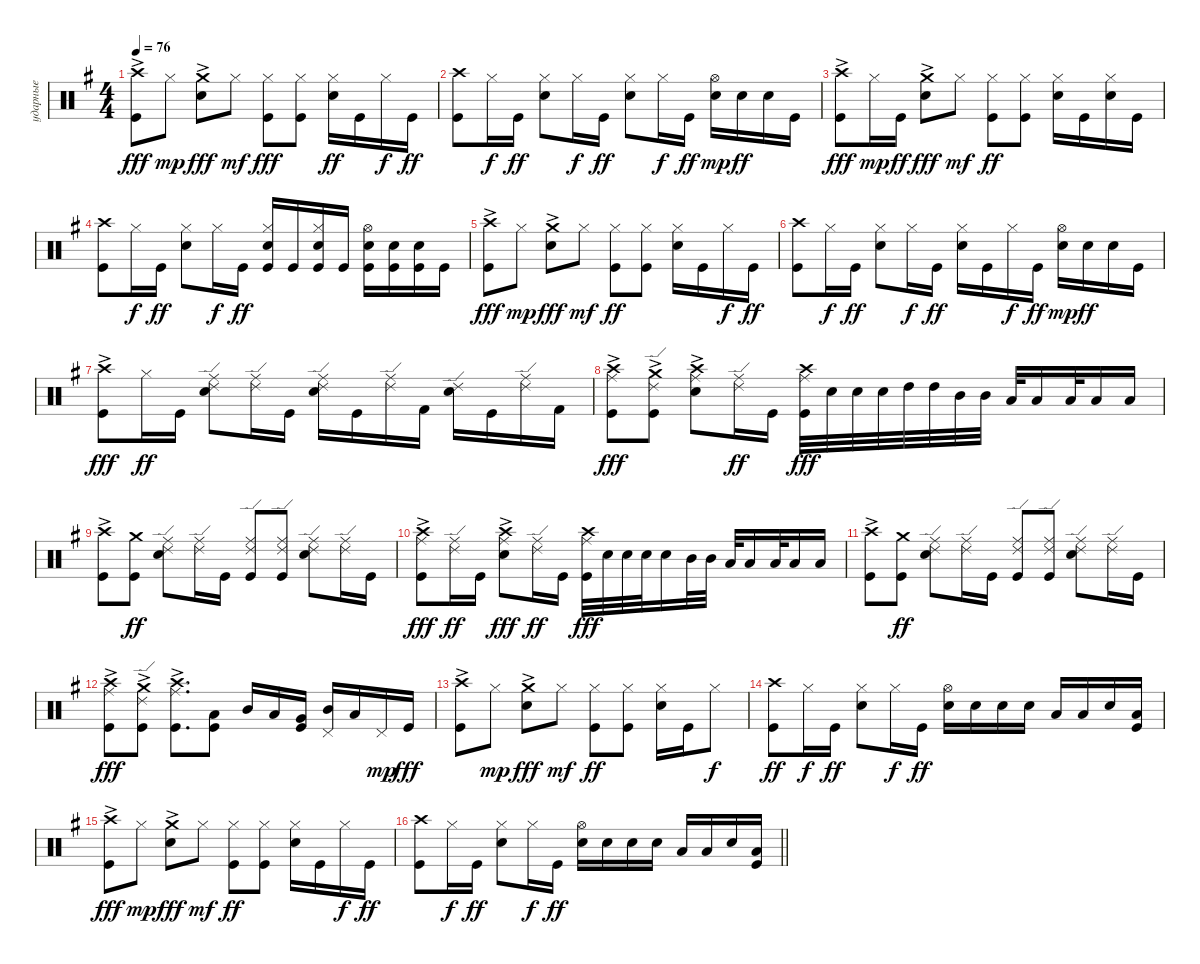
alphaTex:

\track ("ударные" "ударные") {instrument percussion}
\staff {score}
\articulation defaults
\ts (4 4)
\tempo 76
\clef neutral
\ks eminor
("Kick (hit)" "Crash high (hit)"{ac}).8{dy fff} "Hi-Hat (closed)".8{dy mp} ("Snare (hit) 2" "Crash medium (hit)"{ac}).8{dy fff} "Hi-Hat (closed)".8{dy mf} ("Kick (hit)" "Hi-Hat (closed)").8{dy fff} ("Kick (hit)" "Hi-Hat (closed)").8 ("Snare (hit) 2" "Hi-Hat (closed)").16{dy ff} "Kick (hit)".16 "Hi-Hat (closed)".16{dy f} "Kick (hit)".16{dy ff} |
("Kick (hit)" "Crash high (hit)").8 "Hi-Hat (closed)".16{dy f} "Kick (hit)".16{dy ff} ("Snare (hit) 2" "Hi-Hat (closed)").8 "Hi-Hat (closed)".16{dy f} "Kick (hit)".16{dy ff} ("Snare (hit) 2" "Hi-Hat (closed)").8 "Hi-Hat (closed)".16{dy f} "Kick (hit)".16{dy ff} ("Snare (hit) 2" "Hi-Hat (open)").16{dy mp} "Snare (hit) 2".16{dy ff} "Snare (hit) 2".16 "Kick (hit)".16 |
("Kick (hit)" "Crash high (hit)"{ac}).8{dy fff} "Hi-Hat (closed)".16{dy mp} "Kick (hit)".16{dy ff} ("Snare (hit) 2" "Crash medium (hit)"{ac}).8{dy fff} "Hi-Hat (closed)".8{dy mf} ("Kick (hit)" "Hi-Hat (closed)").8{dy ff} ("Kick (hit)" "Hi-Hat (closed)").8 ("Snare (hit) 2" "Hi-Hat (closed)").16 "Kick (hit)".16 ("Hi-Hat (closed)" "Snare (hit) 2").16 "Kick (hit)".16 |
("Kick (hit)" "Crash high (hit)").8 "Hi-Hat (closed)".16{dy f} "Kick (hit)".16{dy ff} ("Snare (hit) 2" "Hi-Hat (closed)").8 "Hi-Hat (closed)".16{dy f} "Kick (hit)".16{dy ff} ("Snare (hit) 2" "Hi-Hat (closed)" "Kick (hit)").16 "Kick (hit)".16 ("Hi-Hat (closed)" "Kick (hit)" "Snare (hit) 2").16 "Kick (hit)".16 ("Snare (hit) 2" "Hi-Hat (open)" "Kick (hit)").16 ("Snare (hit) 2" "Kick (hit)").16 ("Kick (hit)" "Snare (hit) 2").16 "Kick (hit)".16 |
("Kick (hit)" "Crash high (hit)"{ac}).8{dy fff} "Hi-Hat (closed)".8{dy mp} ("Snare (hit) 2" "Crash medium (hit)"{ac}).8{dy fff} "Hi-Hat (closed)".8{dy mf} ("Kick (hit)" "Hi-Hat (closed)").8{dy ff} ("Kick (hit)" "Hi-Hat (closed)").8 ("Snare (hit) 2" "Hi-Hat (closed)").16 "Kick (hit)".16 "Hi-Hat (closed)".16{dy f} "Kick (hit)".16{dy ff} |
("Kick (hit)" "Crash high (hit)").8 "Hi-Hat (closed)".16{dy f} "Kick (hit)".16{dy ff} ("Snare (hit) 2" "Hi-Hat (closed)").8 "Hi-Hat (closed)".16{dy f} "Kick (hit)".16{dy ff} ("Snare (hit) 2" "Hi-Hat (closed)").16 "Kick (hit)".16 "Hi-Hat (closed)".16{dy f} "Kick (hit)".16{dy ff} ("Snare (hit) 2" "Hi-Hat (open)").16{dy mp} "Snare (hit) 2".16{dy ff} "Snare (hit) 2".16 "Kick (hit)".16 |
("Kick (hit)" "Crash high (hit)"{ac}).8{dy fff} "Hi-Hat (closed)".16{dy ff} "Kick (hit)".16 ("Snare (hit) 2" "Ride (middle)" "Ride (edge) 2").8 ("Ride (middle)" "Ride (edge) 2").16 "Kick (hit)".16 ("Snare (hit) 2" "Ride (middle)" "Ride (edge) 2").16 "Kick (hit)".16 ("Ride (middle)" "Ride (edge) 2").16 "Kick (hit) 2".16 ("Ride (edge) 2" "Snare (hit) 2").16 "Kick (hit)".16 ("Ride (middle)" "Ride (edge) 2").16 "Kick (hit) 2".16 |
("Kick (hit)"{ac} "Ride (middle)"{ac} "Crash high (hit)"{ac}).8{dy fff} ("Kick (hit)"{ac} "Crash medium (hit)"{ac} "Ride (edge) 2"{ac}).8 ("Snare (hit) 2"{ac} "Crash high (hit)"{ac} "Ride (middle)"{ac}).8 ("Ride (middle)" "Ride (edge) 2").16{dy ff} "Kick (hit)".16 ("Kick (hit)" "Crash high (hit)" "Ride (middle)").32{dy fff} "Snare (hit) 2".32 "Snare (hit) 2".32 "Snare (hit) 2".32 "High Tom (hit)".32 "High Tom (hit)".32 "Mid Tom (hit)".32 "Mid Tom (hit)".32 "Low Tom (hit)".32 "Low Tom (hit)".16 "Low Tom (hit)".32 "Low Tom (hit)".16 "Low Floor Tom (hit)".16 |
("Kick (hit)" "Crash high (hit)"{ac}).8 ("Kick (hit)" "Crash medium (hit)").8{dy ff} ("Snare (hit) 2" "Ride (middle)" "Ride (edge) 2").8 ("Ride (middle)" "Ride (edge) 2").16 "Kick (hit)".16 ("Kick (hit)" "Ride (middle)" "Ride (edge) 2").8 ("Kick (hit)" "Ride (middle)" "Ride (edge) 2").8 ("Snare (hit) 2" "Ride (middle)" "Ride (edge) 2").8 ("Ride (middle)" "Ride (edge) 2").16 "Kick (hit)".16 |
("Kick (hit)"{ac} "Ride (middle)"{ac} "Crash high (hit)"{ac}).8{dy fff} ("Ride (middle)" "Ride (edge) 2").16{dy ff} "Kick (hit)".16 ("Snare (hit) 2"{ac} "Crash high (hit)"{ac} "Ride (middle)"{ac}).8{dy fff} ("Ride (middle)" "Ride (edge) 2").16{dy ff} "Kick (hit)".16 ("Kick (hit)" "Crash high (hit)" "Ride (middle)").32{dy fff} "Snare (hit) 2".32 "Snare (hit) 2".32 "Snare (hit) 2".32 "Snare (hit) 2".16 "Mid Tom (hit)".32 "Mid Tom (hit)".32 "Low Tom (hit)".32 "Low Tom (hit)".16 "Low Tom (hit)".32 "Low Tom (hit)".16 "Low Floor Tom (hit)".16 |
("Kick (hit)" "Crash high (hit)"{ac}).8 ("Kick (hit)" "Crash medium (hit)").8{dy ff} ("Snare (hit) 2" "Ride (middle)" "Ride (edge) 2").8 ("Ride (middle)" "Ride (edge) 2").16 "Kick (hit)".16 ("Kick (hit)" "Ride (middle)" "Ride (edge) 2").8 ("Kick (hit)" "Ride (middle)" "Ride (edge) 2").8 ("Snare (hit) 2" "Ride (middle)" "Ride (edge) 2").8 ("Ride (middle)" "Ride (edge) 2").16 "Kick (hit)".16 |
("Kick (hit)"{ac} "Ride (middle)"{ac} "Crash high (hit)"{ac}).8{dy fff} ("Kick (hit)"{ac} "Crash medium (hit)"{ac} "Ride (edge) 2"{ac}).8 ("Kick (hit)"{ac} "Crash high (hit)"{ac} "Ride (middle)"{ac}).8{d} ("Kick (hit)" "Low Tom (hit)").8 "Mid Tom (hit)".16 "Low Tom (hit)".16 ("Kick (hit)" "Very Low Tom (hit)").16 ("Pedal Hi-Hat (hit)" "Mid Tom (hit)").16 "Low Floor Tom (hit)".16 "Pedal Hi-Hat (hit)".16{dy mp} "Kick (hit)".16{dy fff} |
("Kick (hit)" "Crash high (hit)"{ac}).8 "Hi-Hat (closed)".8{dy mp} ("Snare (hit) 2" "Crash medium (hit)"{ac}).8{dy fff} "Hi-Hat (closed)".8{dy mf} ("Kick (hit)" "Hi-Hat (closed)").8{dy ff} ("Kick (hit)" "Hi-Hat (closed)").8 ("Snare (hit) 2" "Hi-Hat (closed)").16 "Kick (hit)".16 "Hi-Hat (closed)".8{dy f} |
("Kick (hit)" "Crash high (hit)").8{dy ff} "Hi-Hat (closed)".16{dy f} "Kick (hit)".16{dy ff} ("Snare (hit) 2" "Hi-Hat (closed)").8 "Hi-Hat (closed)".16{dy f} "Kick (hit)".16{dy ff} ("Hi-Hat (open)" "Snare (hit) 2").16 "Snare (hit) 2".16 "Snare (hit) 2".16 "Snare (hit) 2".16 "Low Tom (hit)".16 "Low Tom (hit)".16 "Snare (hit) 2".16 ("Kick (hit)" "Low Tom (hit)").16 |
("Kick (hit)" "Crash high (hit)"{ac}).8{dy fff} "Hi-Hat (closed)".8{dy mp} ("Snare (hit) 2" "Crash medium (hit)"{ac}).8{dy fff} "Hi-Hat (closed)".8{dy mf} ("Kick (hit)" "Hi-Hat (closed)").8{dy ff} ("Kick (hit)" "Hi-Hat (closed)").8 ("Snare (hit) 2" "Hi-Hat (closed)").16 "Kick (hit)".16 "Hi-Hat (closed)".16{dy f} "Kick (hit)".16{dy ff} |
\barLineRight lightlight
("Kick (hit)" "Crash high (hit)").8 "Hi-Hat (closed)".16{dy f} "Kick (hit)".16{dy ff} ("Snare (hit) 2" "Hi-Hat (closed)").8 "Hi-Hat (closed)".16{dy f} "Kick (hit)".16{dy ff} ("Hi-Hat (open)" "Snare (hit) 2").16 "Snare (hit) 2".16 "Snare (hit) 2".16 "Snare (hit) 2".16 "Low Tom (hit)".16 "Low Tom (hit)".16 "Snare (hit) 2".16 ("Kick (hit)" "Low Tom (hit)").16
